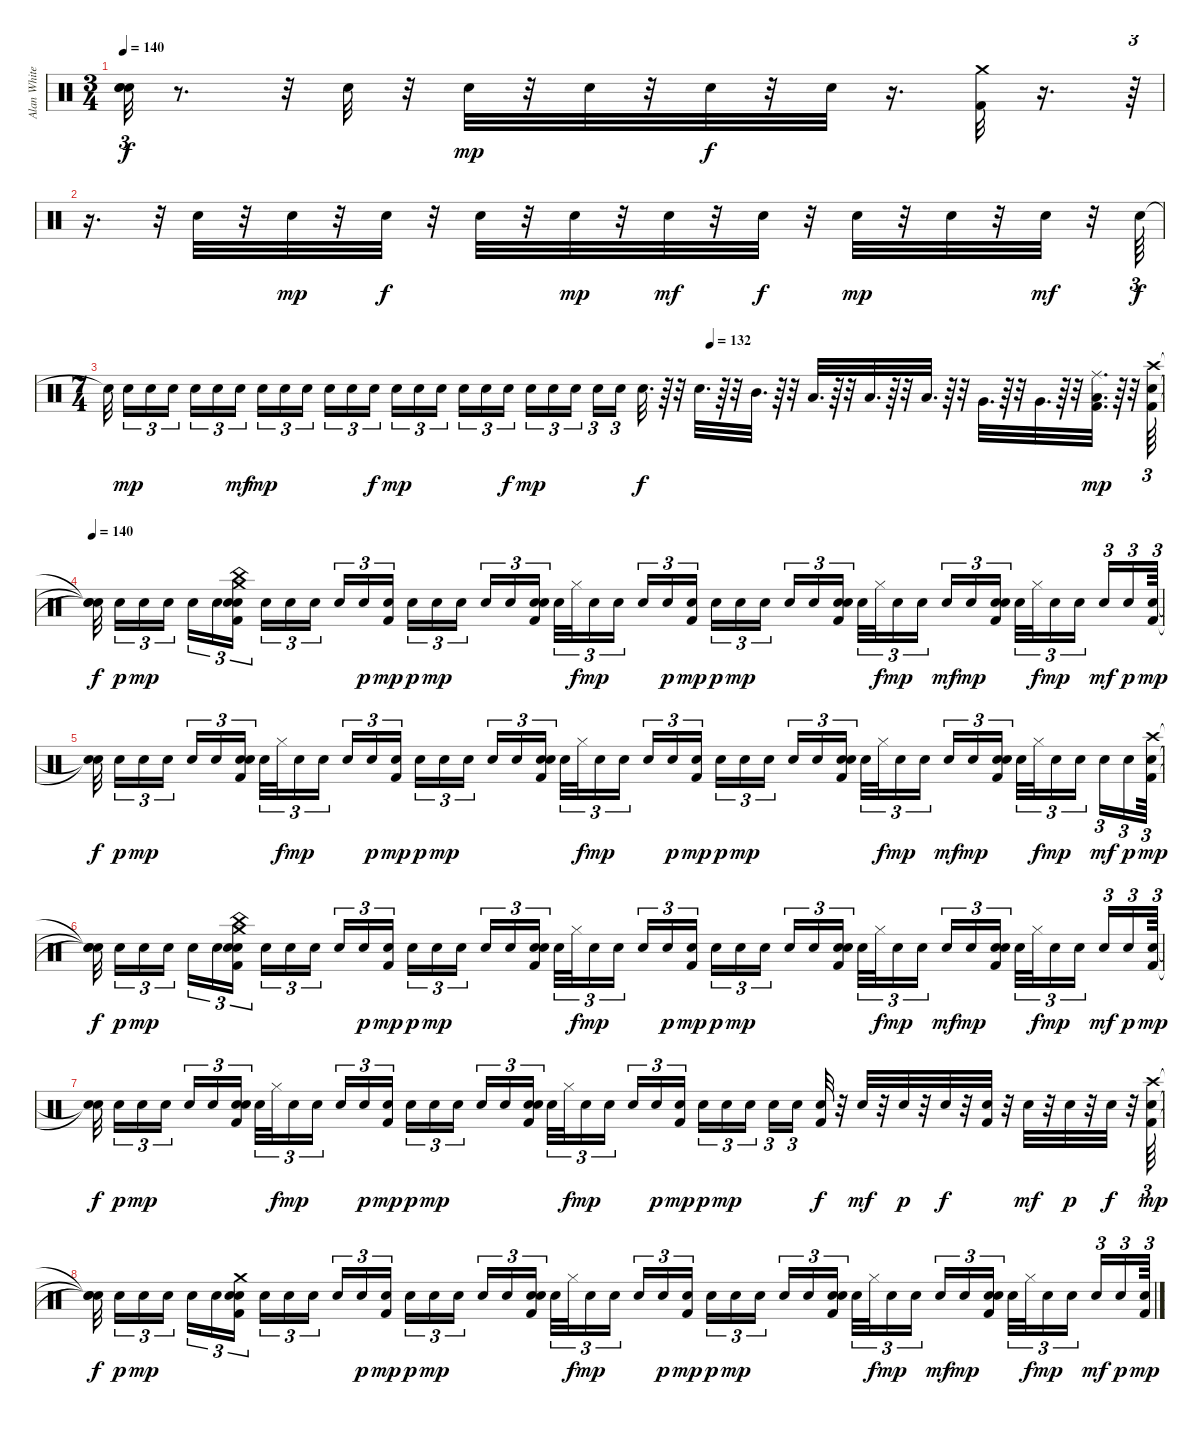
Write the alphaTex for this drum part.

\track ("Alan White" "Alan White") {instrument percussion}
\staff {score}
\articulation defaults
\ts (3 4)
\tempo 140
\clef neutral
\ks c
("Snare (hit)"{t} "Snare (hit)"{t} "Snare (hit)"{t}).32{tu (3 2) dy f} r.8{d} r.32 "Electric Snare (hit)".32 r.32 "Electric Snare (hit)".32{dy mp} r.32 "Electric Snare (hit)".32 r.32 "Electric Snare (hit)".32{dy f} r.32 "Electric Snare (hit)".32 r.16{d} ("Kick (hit) 2" "Crash medium (hit)").32 r.16{d} r.64{tu (3 2)} |
r.16{d} r.32{tu (3 2)} "Electric Snare (hit)".32 r.32 "Electric Snare (hit)".32{dy mp} r.32 "Electric Snare (hit)".32{dy f} r.32 "Electric Snare (hit)".32 r.32 "Electric Snare (hit)".32{dy mp} r.32 "Electric Snare (hit)".32{dy mf} r.32 "Electric Snare (hit)".32{dy f} r.32 "Electric Snare (hit)".32{dy mp} r.32 "Electric Snare (hit)".32 r.32 "Electric Snare (hit)".32{dy mf} r.32 "Electric Snare (hit)".64{tu (3 2) dy f} |
\ts (7 4)
\tempo (132 0.5714285714285714)
"Snare (hit)"{t}.32{beam splitsecondary} "Electric Snare (hit)".16{tu (3 2) dy mp} "Electric Snare (hit)".16{tu (3 2)} "Electric Snare (hit)".16{tu (3 2) beam splitsecondary} "Electric Snare (hit)".16{tu (3 2)} "Electric Snare (hit)".16{tu (3 2)} "Electric Snare (hit)".16{tu (3 2) dy mf} "Electric Snare (hit)".16{tu (3 2) dy mp} "Electric Snare (hit)".16{tu (3 2)} "Electric Snare (hit)".16{tu (3 2) beam splitsecondary} "Electric Snare (hit)".16{tu (3 2)} "Electric Snare (hit)".16{tu (3 2)} "Electric Snare (hit)".16{tu (3 2) dy f} "Electric Snare (hit)".16{tu (3 2) dy mp} "Electric Snare (hit)".16{tu (3 2)} "Electric Snare (hit)".16{tu (3 2) beam splitsecondary} "Electric Snare (hit)".16{tu (3 2)} "Electric Snare (hit)".16{tu (3 2)} "Electric Snare (hit)".16{tu (3 2) dy f} "Electric Snare (hit)".16{tu (3 2) dy mp} "Electric Snare (hit)".16{tu (3 2)} "Electric Snare (hit)".16{tu (3 2) beam splitsecondary} "Electric Snare (hit)".16{tu (3 2)} "Electric Snare (hit)".16{tu (3 2) beam splitsecondary} "Electric Snare (hit)".32{d dy f} r.64 r.32 "Electric Snare (hit)".32{d} r.64 r.32 "Mid Tom (hit)".32{d} r.64 r.32 "Low Tom (hit)".32{d} r.64 r.32 "Low Tom (hit)".32{d} r.64 r.32 "Low Tom (hit)".32{d} r.64 r.32 "Very Low Tom (hit)".32{d} r.64 r.32 "Very Low Tom (hit)".32{d} r.64 r.32 ("Low Floor Tom (hit)" "Ride (middle)" "Kick (hit) 2").32{d dy mp} r.64 r.32 ("Kick (hit) 2" "Crash high (hit)" "Electric Snare (hit)").64{tu (3 2)} |
\tempo 140
("Snare (hit)"{t} "Snare (hit)"{t} "Snare (hit)"{t}).32{dy f beam splitsecondary} "Electric Snare (hit)".16{tu (3 2) dy p} "Electric Snare (hit)".16{tu (3 2) dy mp} "Electric Snare (hit)".16{tu (3 2) beam splitsecondary} "Electric Snare (hit)".16{tu (3 2)} "Electric Snare (hit)".16{tu (3 2)} ("Kick (hit) 2" "Crash medium (hit)" "Electric Snare (hit)" "China (hit)" "Snare (hit) 2").16{tu (3 2)} "Electric Snare (hit)".16{tu (3 2)} "Electric Snare (hit)".16{tu (3 2)} "Electric Snare (hit)".16{tu (3 2) beam splitsecondary} "Electric Snare (hit)".16{tu (3 2)} "Electric Snare (hit)".16{tu (3 2) dy p} ("Electric Snare (hit)" "Kick (hit) 2").16{tu (3 2) dy mp} "Electric Snare (hit)".16{tu (3 2) dy p} "Electric Snare (hit)".16{tu (3 2) dy mp} "Electric Snare (hit)".16{tu (3 2) beam splitsecondary} "Electric Snare (hit)".16{tu (3 2)} "Electric Snare (hit)".16{tu (3 2)} ("Kick (hit) 2" "Electric Snare (hit)" "Snare (hit) 2").16{tu (3 2)} "Electric Snare (hit)".32{tu (3 2)} "Hi-Hat (closed)".32{tu (3 2) dy f} "Electric Snare (hit)".16{tu (3 2) dy mp} "Electric Snare (hit)".16{tu (3 2) beam splitsecondary} "Electric Snare (hit)".16{tu (3 2)} "Electric Snare (hit)".16{tu (3 2) dy p} ("Electric Snare (hit)" "Kick (hit) 2").16{tu (3 2) dy mp} "Electric Snare (hit)".16{tu (3 2) dy p} "Electric Snare (hit)".16{tu (3 2) dy mp} "Electric Snare (hit)".16{tu (3 2) beam splitsecondary} "Electric Snare (hit)".16{tu (3 2)} "Electric Snare (hit)".16{tu (3 2)} ("Electric Snare (hit)" "Snare (hit) 2" "Kick (hit) 2").16{tu (3 2)} "Electric Snare (hit)".32{tu (3 2)} "Hi-Hat (closed)".32{tu (3 2) dy f} "Electric Snare (hit)".16{tu (3 2) dy mp} "Electric Snare (hit)".16{tu (3 2) beam splitsecondary} "Electric Snare (hit)".16{tu (3 2) dy mf} "Electric Snare (hit)".16{tu (3 2) dy mp} ("Electric Snare (hit)" "Kick (hit) 2" "Snare (hit) 2").16{tu (3 2)} "Electric Snare (hit)".32{tu (3 2)} "Hi-Hat (closed)".32{tu (3 2) dy f} "Electric Snare (hit)".16{tu (3 2) dy mp} "Electric Snare (hit)".16{tu (3 2) beam splitsecondary} "Electric Snare (hit)".16{tu (3 2) dy mf} "Electric Snare (hit)".16{tu (3 2) dy p} ("Kick (hit) 2" "Electric Snare (hit)").64{tu (3 2) dy mp} |
("Snare (hit)"{t} "Snare (hit)"{t}).32{dy f beam splitsecondary} "Electric Snare (hit)".16{tu (3 2) dy p} "Electric Snare (hit)".16{tu (3 2) dy mp} "Electric Snare (hit)".16{tu (3 2) beam splitsecondary} "Electric Snare (hit)".16{tu (3 2)} "Electric Snare (hit)".16{tu (3 2)} ("Kick (hit) 2" "Electric Snare (hit)" "Snare (hit) 2").16{tu (3 2)} "Electric Snare (hit)".32{tu (3 2)} "Hi-Hat (closed)".32{tu (3 2) dy f} "Electric Snare (hit)".16{tu (3 2) dy mp} "Electric Snare (hit)".16{tu (3 2) beam splitsecondary} "Electric Snare (hit)".16{tu (3 2)} "Electric Snare (hit)".16{tu (3 2) dy p} ("Kick (hit) 2" "Electric Snare (hit)").16{tu (3 2) dy mp} "Electric Snare (hit)".16{tu (3 2) dy p} "Electric Snare (hit)".16{tu (3 2) dy mp} "Electric Snare (hit)".16{tu (3 2) beam splitsecondary} "Electric Snare (hit)".16{tu (3 2)} "Electric Snare (hit)".16{tu (3 2)} ("Kick (hit) 2" "Electric Snare (hit)" "Snare (hit) 2").16{tu (3 2)} "Electric Snare (hit)".32{tu (3 2)} "Hi-Hat (closed)".32{tu (3 2) dy f} "Electric Snare (hit)".16{tu (3 2) dy mp} "Electric Snare (hit)".16{tu (3 2) beam splitsecondary} "Electric Snare (hit)".16{tu (3 2)} "Electric Snare (hit)".16{tu (3 2) dy p} ("Kick (hit) 2" "Electric Snare (hit)").16{tu (3 2) dy mp} "Electric Snare (hit)".16{tu (3 2) dy p} "Electric Snare (hit)".16{tu (3 2) dy mp} "Electric Snare (hit)".16{tu (3 2) beam splitsecondary} "Electric Snare (hit)".16{tu (3 2)} "Electric Snare (hit)".16{tu (3 2)} ("Kick (hit) 2" "Electric Snare (hit)" "Snare (hit) 2").16{tu (3 2)} "Electric Snare (hit)".32{tu (3 2)} "Hi-Hat (closed)".32{tu (3 2) dy f} "Electric Snare (hit)".16{tu (3 2) dy mp} "Electric Snare (hit)".16{tu (3 2) beam splitsecondary} "Electric Snare (hit)".16{tu (3 2) dy mf} "Electric Snare (hit)".16{tu (3 2) dy mp} ("Kick (hit) 2" "Electric Snare (hit)" "Snare (hit) 2").16{tu (3 2)} "Electric Snare (hit)".32{tu (3 2)} "Hi-Hat (closed)".32{tu (3 2) dy f} "Electric Snare (hit)".16{tu (3 2) dy mp} "Electric Snare (hit)".16{tu (3 2) beam splitsecondary} "Electric Snare (hit)".16{tu (3 2) dy mf} "Electric Snare (hit)".16{tu (3 2) dy p} ("Electric Snare (hit)" "Crash high (hit)" "Kick (hit) 2").64{tu (3 2) dy mp} |
("Snare (hit)"{t} "Snare (hit)"{t} "Snare (hit)"{t}).32{dy f beam splitsecondary} "Electric Snare (hit)".16{tu (3 2) dy p} "Electric Snare (hit)".16{tu (3 2) dy mp} "Electric Snare (hit)".16{tu (3 2) beam splitsecondary} "Electric Snare (hit)".16{tu (3 2)} "Electric Snare (hit)".16{tu (3 2)} ("Crash medium (hit)" "Kick (hit) 2" "Electric Snare (hit)" "China (hit)" "Snare (hit) 2").16{tu (3 2)} "Electric Snare (hit)".16{tu (3 2)} "Electric Snare (hit)".16{tu (3 2)} "Electric Snare (hit)".16{tu (3 2) beam splitsecondary} "Electric Snare (hit)".16{tu (3 2)} "Electric Snare (hit)".16{tu (3 2) dy p} ("Electric Snare (hit)" "Kick (hit) 2").16{tu (3 2) dy mp} "Electric Snare (hit)".16{tu (3 2) dy p} "Electric Snare (hit)".16{tu (3 2) dy mp} "Electric Snare (hit)".16{tu (3 2) beam splitsecondary} "Electric Snare (hit)".16{tu (3 2)} "Electric Snare (hit)".16{tu (3 2)} ("Kick (hit) 2" "Electric Snare (hit)" "Snare (hit) 2").16{tu (3 2)} "Electric Snare (hit)".32{tu (3 2)} "Hi-Hat (closed)".32{tu (3 2) dy f} "Electric Snare (hit)".16{tu (3 2) dy mp} "Electric Snare (hit)".16{tu (3 2) beam splitsecondary} "Electric Snare (hit)".16{tu (3 2)} "Electric Snare (hit)".16{tu (3 2) dy p} ("Kick (hit) 2" "Electric Snare (hit)").16{tu (3 2) dy mp} "Electric Snare (hit)".16{tu (3 2) dy p} "Electric Snare (hit)".16{tu (3 2) dy mp} "Electric Snare (hit)".16{tu (3 2) beam splitsecondary} "Electric Snare (hit)".16{tu (3 2)} "Electric Snare (hit)".16{tu (3 2)} ("Electric Snare (hit)" "Kick (hit) 2" "Snare (hit) 2").16{tu (3 2)} "Electric Snare (hit)".32{tu (3 2)} "Hi-Hat (closed)".32{tu (3 2) dy f} "Electric Snare (hit)".16{tu (3 2) dy mp} "Electric Snare (hit)".16{tu (3 2) beam splitsecondary} "Electric Snare (hit)".16{tu (3 2) dy mf} "Electric Snare (hit)".16{tu (3 2) dy mp} ("Electric Snare (hit)" "Kick (hit) 2" "Snare (hit) 2").16{tu (3 2)} "Electric Snare (hit)".32{tu (3 2)} "Hi-Hat (closed)".32{tu (3 2) dy f} "Electric Snare (hit)".16{tu (3 2) dy mp} "Electric Snare (hit)".16{tu (3 2) beam splitsecondary} "Electric Snare (hit)".16{tu (3 2) dy mf} "Electric Snare (hit)".16{tu (3 2) dy p} ("Electric Snare (hit)" "Kick (hit) 2").64{tu (3 2) dy mp} |
("Snare (hit)"{t} "Snare (hit)"{t}).32{dy f beam splitsecondary} "Electric Snare (hit)".16{tu (3 2) dy p} "Electric Snare (hit)".16{tu (3 2) dy mp} "Electric Snare (hit)".16{tu (3 2) beam splitsecondary} "Electric Snare (hit)".16{tu (3 2)} "Electric Snare (hit)".16{tu (3 2)} ("Electric Snare (hit)" "Kick (hit) 2" "Snare (hit) 2").16{tu (3 2)} "Electric Snare (hit)".32{tu (3 2)} "Hi-Hat (closed)".32{tu (3 2) dy f} "Electric Snare (hit)".16{tu (3 2) dy mp} "Electric Snare (hit)".16{tu (3 2) beam splitsecondary} "Electric Snare (hit)".16{tu (3 2)} "Electric Snare (hit)".16{tu (3 2) dy p} ("Kick (hit) 2" "Electric Snare (hit)").16{tu (3 2) dy mp} "Electric Snare (hit)".16{tu (3 2) dy p} "Electric Snare (hit)".16{tu (3 2) dy mp} "Electric Snare (hit)".16{tu (3 2) beam splitsecondary} "Electric Snare (hit)".16{tu (3 2)} "Electric Snare (hit)".16{tu (3 2)} ("Kick (hit) 2" "Electric Snare (hit)" "Snare (hit) 2").16{tu (3 2)} "Electric Snare (hit)".32{tu (3 2)} "Hi-Hat (closed)".32{tu (3 2) dy f} "Electric Snare (hit)".16{tu (3 2) dy mp} "Electric Snare (hit)".16{tu (3 2) beam splitsecondary} "Electric Snare (hit)".16{tu (3 2)} "Electric Snare (hit)".16{tu (3 2) dy p} ("Electric Snare (hit)" "Kick (hit) 2").16{tu (3 2) dy mp} "Electric Snare (hit)".16{tu (3 2) dy p} "Electric Snare (hit)".16{tu (3 2) dy mp} "Electric Snare (hit)".16{tu (3 2) beam splitsecondary} "Electric Snare (hit)".16{tu (3 2)} "Electric Snare (hit)".16{tu (3 2) beam splitsecondary} ("Electric Snare (hit)" "Kick (hit) 2").32{dy f} r.32 "Electric Snare (hit)".32{dy mf} r.32 "Electric Snare (hit)".32{dy p} r.32 "Electric Snare (hit)".32{dy f} r.32 ("Electric Snare (hit)" "Kick (hit) 2").32 r.32 "Electric Snare (hit)".32{dy mf} r.32 "Electric Snare (hit)".32{dy p} r.32 "Electric Snare (hit)".32{dy f} r.32 ("Crash high (hit)" "Electric Snare (hit)" "Kick (hit) 2").64{tu (3 2) dy mp} |
("Snare (hit)"{t} "Snare (hit)"{t} "Snare (hit)"{t}).32{dy f beam splitsecondary} "Electric Snare (hit)".16{tu (3 2) dy p} "Electric Snare (hit)".16{tu (3 2) dy mp} "Electric Snare (hit)".16{tu (3 2) beam splitsecondary} "Electric Snare (hit)".16{tu (3 2)} "Electric Snare (hit)".16{tu (3 2)} ("Kick (hit) 2" "Crash medium (hit)" "Electric Snare (hit)" "Snare (hit) 2").16{tu (3 2)} "Electric Snare (hit)".16{tu (3 2)} "Electric Snare (hit)".16{tu (3 2)} "Electric Snare (hit)".16{tu (3 2) beam splitsecondary} "Electric Snare (hit)".16{tu (3 2)} "Electric Snare (hit)".16{tu (3 2) dy p} ("Kick (hit) 2" "Electric Snare (hit)").16{tu (3 2) dy mp} "Electric Snare (hit)".16{tu (3 2) dy p} "Electric Snare (hit)".16{tu (3 2) dy mp} "Electric Snare (hit)".16{tu (3 2) beam splitsecondary} "Electric Snare (hit)".16{tu (3 2)} "Electric Snare (hit)".16{tu (3 2)} ("Electric Snare (hit)" "Kick (hit) 2" "Snare (hit) 2").16{tu (3 2)} "Electric Snare (hit)".32{tu (3 2)} "Hi-Hat (closed)".32{tu (3 2) dy f} "Electric Snare (hit)".16{tu (3 2) dy mp} "Electric Snare (hit)".16{tu (3 2) beam splitsecondary} "Electric Snare (hit)".16{tu (3 2)} "Electric Snare (hit)".16{tu (3 2) dy p} ("Electric Snare (hit)" "Kick (hit) 2").16{tu (3 2) dy mp} "Electric Snare (hit)".16{tu (3 2) dy p} "Electric Snare (hit)".16{tu (3 2) dy mp} "Electric Snare (hit)".16{tu (3 2) beam splitsecondary} "Electric Snare (hit)".16{tu (3 2)} "Electric Snare (hit)".16{tu (3 2)} ("Kick (hit) 2" "Electric Snare (hit)" "Snare (hit) 2").16{tu (3 2)} "Electric Snare (hit)".32{tu (3 2)} "Hi-Hat (closed)".32{tu (3 2) dy f} "Electric Snare (hit)".16{tu (3 2) dy mp} "Electric Snare (hit)".16{tu (3 2) beam splitsecondary} "Electric Snare (hit)".16{tu (3 2) dy mf} "Electric Snare (hit)".16{tu (3 2) dy mp} ("Kick (hit) 2" "Electric Snare (hit)" "Snare (hit) 2").16{tu (3 2)} "Electric Snare (hit)".32{tu (3 2)} "Hi-Hat (closed)".32{tu (3 2) dy f} "Electric Snare (hit)".16{tu (3 2) dy mp} "Electric Snare (hit)".16{tu (3 2) beam splitsecondary} "Electric Snare (hit)".16{tu (3 2) dy mf} "Electric Snare (hit)".16{tu (3 2) dy p} ("Electric Snare (hit)" "Kick (hit) 2").64{tu (3 2) dy mp}
